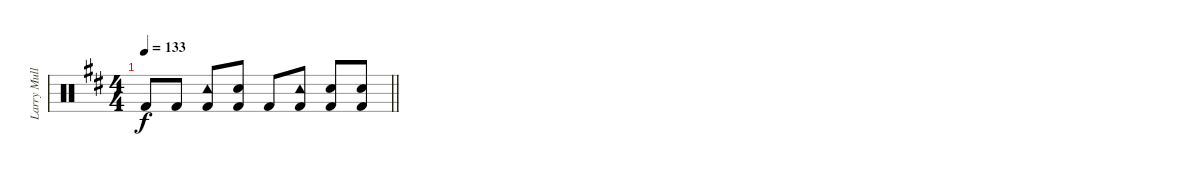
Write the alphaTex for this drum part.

\track ("Larry Mullen Jr." "Larry Mull") {instrument percussion}
\staff {score}
\articulation defaults
\ts (4 4)
\tempo 133
\clef neutral
\barLineRight lightlight
\ks d "Kick (hit) 2".8{dy f} "Kick (hit) 2".8
("Kick (hit) 2" "Tambourine (hit)").8 ("Kick (hit) 2" "Snare (hit) 2").8 "Kick (hit) 2".8 ("Kick (hit) 2" "Tambourine (hit)").8 ("Kick (hit) 2" "Snare (hit) 2").8 ("Kick (hit) 2" "Snare (hit) 2").8
